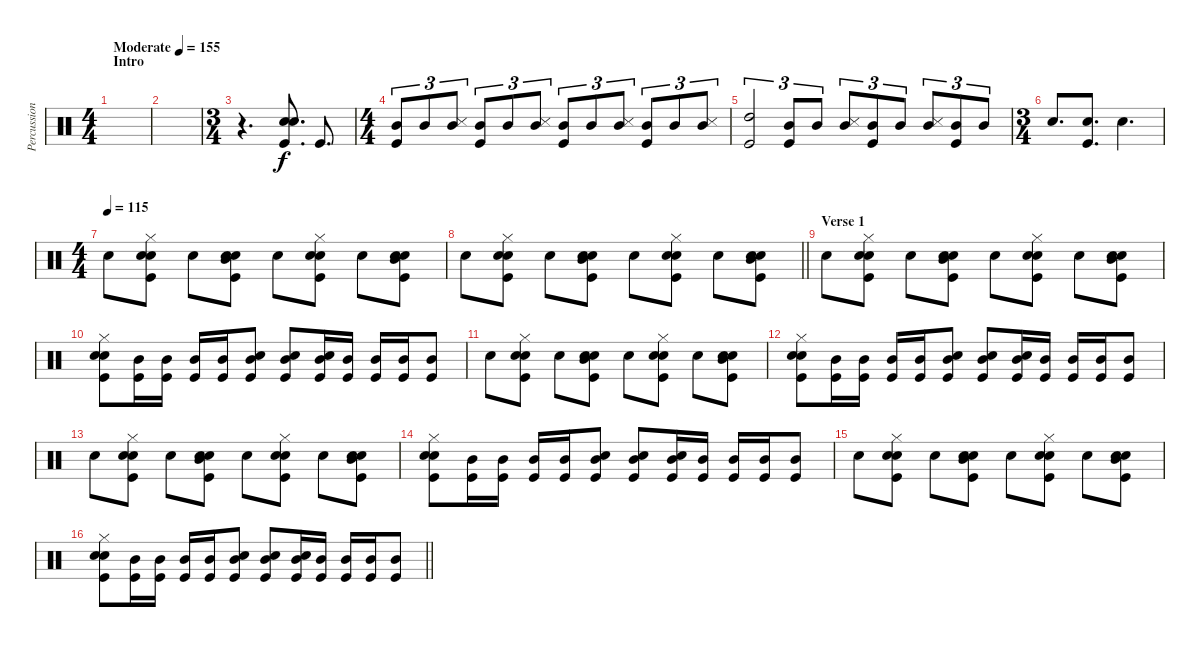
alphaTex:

\track ("Percussions" "Percussion") {instrument percussion}
\staff {score}
\articulation defaults
\ts (4 4)
\section ("" "Intro")
\tempo (155 "Moderate")
\clef neutral
\ks c
|
|
\ts (3 4)
r.4{d} ("Electric Snare (hit)" "Snare (hit) 2" "Kick (hit)").8{d} "Kick (hit)".8{d} |
\ts (4 4)
("Mid Tom (hit)" "Kick (hit)").8{tu (3 2)} "Mid Tom (hit)".8{tu (3 2)} ("Snare (side stick) 3" "Mid Tom (hit)").8{tu (3 2)} ("Mid Tom (hit)" "Kick (hit)").8{tu (3 2)} "Mid Tom (hit)".8{tu (3 2)} ("Snare (side stick) 3" "Mid Tom (hit)").8{tu (3 2)} ("Mid Tom (hit)" "Kick (hit)").8{tu (3 2)} "Mid Tom (hit)".8{tu (3 2)} ("Snare (side stick) 3" "Mid Tom (hit)").8{tu (3 2)} ("Mid Tom (hit)" "Kick (hit)").8{tu (3 2)} "Mid Tom (hit)".8{tu (3 2)} ("Snare (side stick) 3" "Mid Tom (hit)").8{tu (3 2)} |
("High Tom (hit)" "Kick (hit)").2{tu (3 2)} ("Mid Tom (hit)" "Kick (hit)").8{tu (3 2)} "Mid Tom (hit)".8{tu (3 2)} ("Snare (side stick) 3" "Mid Tom (hit)").8{tu (3 2)} ("Mid Tom (hit)" "Kick (hit)").8{tu (3 2)} "Mid Tom (hit)".8{tu (3 2)} ("Snare (side stick) 3" "Mid Tom (hit)").8{tu (3 2)} ("Mid Tom (hit)" "Kick (hit)").8{tu (3 2)} "Mid Tom (hit)".8{tu (3 2)} |
\ts (3 4)
"Snare (hit) 2".8{d} ("Electric Snare (hit)" "Kick (hit)").8{d} "Snare (hit) 2".4{d} |
\ts (4 4)
\tempo (115)
"Snare (hit) 2".8 ("Hi-Hat (closed)" "Snare (hit) 2" "Electric Snare (hit)" "Kick (hit)").8 "Snare (hit) 2".8 ("Mid Tom (hit)" "Snare (hit) 2" "Electric Snare (hit)" "Kick (hit)").8 "Snare (hit) 2".8 ("Hi-Hat (closed)" "Snare (hit) 2" "Electric Snare (hit)" "Kick (hit)").8 "Snare (hit) 2".8 ("Mid Tom (hit)" "Snare (hit) 2" "Electric Snare (hit)" "Kick (hit)").8 |
\barLineRight lightlight "Snare (hit) 2".8
("Hi-Hat (closed)" "Snare (hit) 2" "Electric Snare (hit)" "Kick (hit)").8 "Snare (hit) 2".8 ("Mid Tom (hit)" "Snare (hit) 2" "Electric Snare (hit)" "Kick (hit)").8 "Snare (hit) 2".8 ("Hi-Hat (closed)" "Snare (hit) 2" "Electric Snare (hit)" "Kick (hit)").8 "Snare (hit) 2".8 ("Mid Tom (hit)" "Snare (hit) 2" "Electric Snare (hit)" "Kick (hit)").8 |
\section ("" "Verse 1")
"Snare (hit) 2".8 ("Hi-Hat (closed)" "Snare (hit) 2" "Electric Snare (hit)" "Kick (hit)").8 "Snare (hit) 2".8 ("Mid Tom (hit)" "Snare (hit) 2" "Electric Snare (hit)" "Kick (hit)").8 "Snare (hit) 2".8 ("Hi-Hat (closed)" "Snare (hit) 2" "Electric Snare (hit)" "Kick (hit)").8 "Snare (hit) 2".8 ("Mid Tom (hit)" "Snare (hit) 2" "Electric Snare (hit)" "Kick (hit)").8 |
("Hi-Hat (closed)" "Snare (hit) 2" "Electric Snare (hit)" "Kick (hit)").8 ("Mid Tom (hit)" "Kick (hit)").16 ("Mid Tom (hit)" "Kick (hit)").16 ("Mid Tom (hit)" "Kick (hit)").16 ("Mid Tom (hit)" "Kick (hit)").16 ("Snare (hit) 2" "Mid Tom (hit)" "Kick (hit)").8 ("Snare (hit) 2" "Mid Tom (hit)" "Kick (hit)").8 ("Snare (hit) 2" "Mid Tom (hit)" "Kick (hit)").16 ("Mid Tom (hit)" "Kick (hit)").16 ("Mid Tom (hit)" "Kick (hit)").16 ("Mid Tom (hit)" "Kick (hit)").16 ("Mid Tom (hit)" "Kick (hit)").8 |
"Snare (hit) 2".8 ("Hi-Hat (closed)" "Snare (hit) 2" "Electric Snare (hit)" "Kick (hit)").8 "Snare (hit) 2".8 ("Mid Tom (hit)" "Snare (hit) 2" "Electric Snare (hit)" "Kick (hit)").8 "Snare (hit) 2".8 ("Hi-Hat (closed)" "Snare (hit) 2" "Electric Snare (hit)" "Kick (hit)").8 "Snare (hit) 2".8 ("Mid Tom (hit)" "Snare (hit) 2" "Electric Snare (hit)" "Kick (hit)").8 |
("Hi-Hat (closed)" "Snare (hit) 2" "Electric Snare (hit)" "Kick (hit)").8 ("Mid Tom (hit)" "Kick (hit)").16 ("Mid Tom (hit)" "Kick (hit)").16 ("Mid Tom (hit)" "Kick (hit)").16 ("Mid Tom (hit)" "Kick (hit)").16 ("Snare (hit) 2" "Mid Tom (hit)" "Kick (hit)").8 ("Snare (hit) 2" "Mid Tom (hit)" "Kick (hit)").8 ("Snare (hit) 2" "Mid Tom (hit)" "Kick (hit)").16 ("Mid Tom (hit)" "Kick (hit)").16 ("Mid Tom (hit)" "Kick (hit)").16 ("Mid Tom (hit)" "Kick (hit)").16 ("Mid Tom (hit)" "Kick (hit)").8 |
"Snare (hit) 2".8 ("Hi-Hat (closed)" "Snare (hit) 2" "Electric Snare (hit)" "Kick (hit)").8 "Snare (hit) 2".8 ("Mid Tom (hit)" "Snare (hit) 2" "Electric Snare (hit)" "Kick (hit)").8 "Snare (hit) 2".8 ("Hi-Hat (closed)" "Snare (hit) 2" "Electric Snare (hit)" "Kick (hit)").8 "Snare (hit) 2".8 ("Mid Tom (hit)" "Snare (hit) 2" "Electric Snare (hit)" "Kick (hit)").8 |
("Hi-Hat (closed)" "Snare (hit) 2" "Electric Snare (hit)" "Kick (hit)").8 ("Mid Tom (hit)" "Kick (hit)").16 ("Mid Tom (hit)" "Kick (hit)").16 ("Mid Tom (hit)" "Kick (hit)").16 ("Mid Tom (hit)" "Kick (hit)").16 ("Snare (hit) 2" "Mid Tom (hit)" "Kick (hit)").8 ("Snare (hit) 2" "Mid Tom (hit)" "Kick (hit)").8 ("Snare (hit) 2" "Mid Tom (hit)" "Kick (hit)").16 ("Mid Tom (hit)" "Kick (hit)").16 ("Mid Tom (hit)" "Kick (hit)").16 ("Mid Tom (hit)" "Kick (hit)").16 ("Mid Tom (hit)" "Kick (hit)").8 |
"Snare (hit) 2".8 ("Hi-Hat (closed)" "Snare (hit) 2" "Electric Snare (hit)" "Kick (hit)").8 "Snare (hit) 2".8 ("Mid Tom (hit)" "Snare (hit) 2" "Electric Snare (hit)" "Kick (hit)").8 "Snare (hit) 2".8 ("Hi-Hat (closed)" "Snare (hit) 2" "Electric Snare (hit)" "Kick (hit)").8 "Snare (hit) 2".8 ("Mid Tom (hit)" "Snare (hit) 2" "Electric Snare (hit)" "Kick (hit)").8 |
\barLineRight lightlight
("Hi-Hat (closed)" "Snare (hit) 2" "Electric Snare (hit)" "Kick (hit)").8 ("Mid Tom (hit)" "Kick (hit)").16 ("Mid Tom (hit)" "Kick (hit)").16 ("Mid Tom (hit)" "Kick (hit)").16 ("Mid Tom (hit)" "Kick (hit)").16 ("Snare (hit) 2" "Mid Tom (hit)" "Kick (hit)").8 ("Snare (hit) 2" "Mid Tom (hit)" "Kick (hit)").8 ("Snare (hit) 2" "Mid Tom (hit)" "Kick (hit)").16 ("Mid Tom (hit)" "Kick (hit)").16 ("Mid Tom (hit)" "Kick (hit)").16 ("Mid Tom (hit)" "Kick (hit)").16 ("Mid Tom (hit)" "Kick (hit)").8
